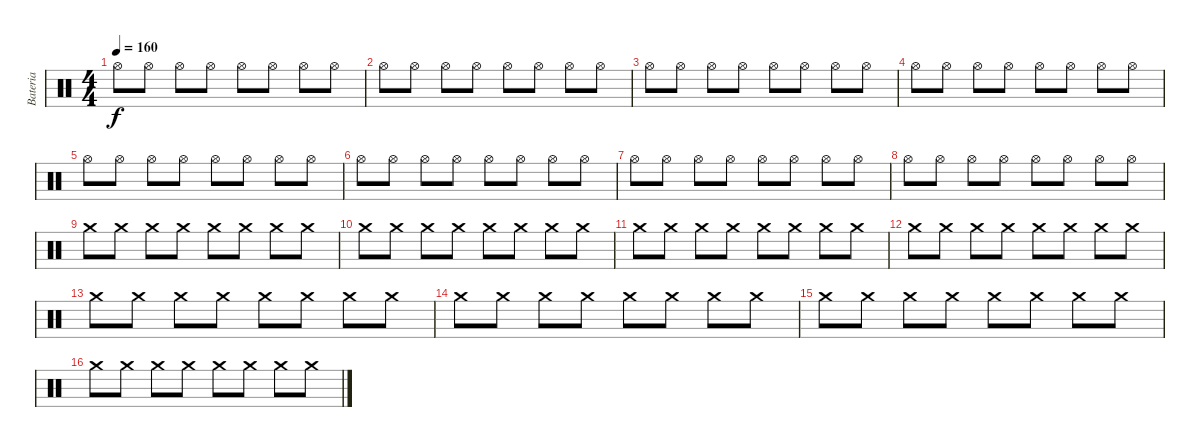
\track ("Bateria" "Bateria") {instrument percussion}
\staff {score}
\articulation defaults
\ts (4 4)
\tempo 160
\clef neutral
\ks c "Hi-Hat (open)".8{dy f} "Hi-Hat (open)".8 "Hi-Hat (open)".8 "Hi-Hat (open)".8 "Hi-Hat (open)".8 "Hi-Hat (open)".8 "Hi-Hat (open)".8 "Hi-Hat (open)".8
|
"Hi-Hat (open)".8 "Hi-Hat (open)".8 "Hi-Hat (open)".8 "Hi-Hat (open)".8 "Hi-Hat (open)".8 "Hi-Hat (open)".8 "Hi-Hat (open)".8 "Hi-Hat (open)".8 |
"Hi-Hat (open)".8 "Hi-Hat (open)".8 "Hi-Hat (open)".8 "Hi-Hat (open)".8 "Hi-Hat (open)".8 "Hi-Hat (open)".8 "Hi-Hat (open)".8 "Hi-Hat (open)".8 |
"Hi-Hat (open)".8 "Hi-Hat (open)".8 "Hi-Hat (open)".8 "Hi-Hat (open)".8 "Hi-Hat (open)".8 "Hi-Hat (open)".8 "Hi-Hat (open)".8 "Hi-Hat (open)".8 |
"Hi-Hat (open)".8 "Hi-Hat (open)".8 "Hi-Hat (open)".8 "Hi-Hat (open)".8 "Hi-Hat (open)".8 "Hi-Hat (open)".8 "Hi-Hat (open)".8 "Hi-Hat (open)".8 |
"Hi-Hat (open)".8 "Hi-Hat (open)".8 "Hi-Hat (open)".8 "Hi-Hat (open)".8 "Hi-Hat (open)".8 "Hi-Hat (open)".8 "Hi-Hat (open)".8 "Hi-Hat (open)".8 |
"Hi-Hat (open)".8 "Hi-Hat (open)".8 "Hi-Hat (open)".8 "Hi-Hat (open)".8 "Hi-Hat (open)".8 "Hi-Hat (open)".8 "Hi-Hat (open)".8 "Hi-Hat (open)".8 |
"Hi-Hat (open)".8 "Hi-Hat (open)".8 "Hi-Hat (open)".8 "Hi-Hat (open)".8 "Hi-Hat (open)".8 "Hi-Hat (open)".8 "Hi-Hat (open)".8 "Hi-Hat (open)".8 |
"Crash medium (hit)".8 "Crash medium (hit)".8 "Crash medium (hit)".8 "Crash medium (hit)".8 "Crash medium (hit)".8 "Crash medium (hit)".8 "Crash medium (hit)".8 "Crash medium (hit)".8 |
"Crash medium (hit)".8 "Crash medium (hit)".8 "Crash medium (hit)".8 "Crash medium (hit)".8 "Crash medium (hit)".8 "Crash medium (hit)".8 "Crash medium (hit)".8 "Crash medium (hit)".8 |
"Crash medium (hit)".8 "Crash medium (hit)".8 "Crash medium (hit)".8 "Crash medium (hit)".8 "Crash medium (hit)".8 "Crash medium (hit)".8 "Crash medium (hit)".8 "Crash medium (hit)".8 |
"Crash medium (hit)".8 "Crash medium (hit)".8 "Crash medium (hit)".8 "Crash medium (hit)".8 "Crash medium (hit)".8 "Crash medium (hit)".8 "Crash medium (hit)".8 "Crash medium (hit)".8 |
"Crash medium (hit)".8 "Crash medium (hit)".8 "Crash medium (hit)".8 "Crash medium (hit)".8 "Crash medium (hit)".8 "Crash medium (hit)".8 "Crash medium (hit)".8 "Crash medium (hit)".8 |
"Crash medium (hit)".8 "Crash medium (hit)".8 "Crash medium (hit)".8 "Crash medium (hit)".8 "Crash medium (hit)".8 "Crash medium (hit)".8 "Crash medium (hit)".8 "Crash medium (hit)".8 |
"Crash medium (hit)".8 "Crash medium (hit)".8 "Crash medium (hit)".8 "Crash medium (hit)".8 "Crash medium (hit)".8 "Crash medium (hit)".8 "Crash medium (hit)".8 "Crash medium (hit)".8 |
"Crash medium (hit)".8 "Crash medium (hit)".8 "Crash medium (hit)".8 "Crash medium (hit)".8 "Crash medium (hit)".8 "Crash medium (hit)".8 "Crash medium (hit)".8 "Crash medium (hit)".8
